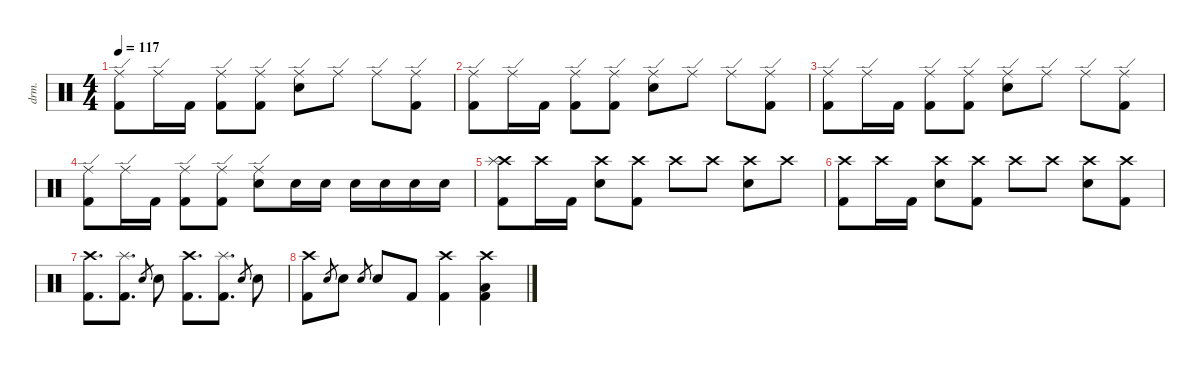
\defaultSystemsLayout 4
\hideDynamics
\bracketExtendMode nobrackets
\track ("Drums" "drm.") {instrument percussion}
\staff {score}
\articulation defaults
\ts (4 4)
\tempo 117
\clef neutral
\ks c
("Ride (edge)" "Kick (hit) 2").8{dy mf beam Down} "Ride (edge)".16{beam Down} "Kick (hit) 2".16{beam Down} ("Ride (edge)" "Kick (hit) 2").8{beam Down} ("Ride (edge)" "Kick (hit) 2").8{beam Down} ("Ride (edge)" "Snare (hit) 2").8{beam Down} "Ride (edge)".8{beam Down} "Ride (edge)".8{beam Down} ("Ride (edge)" "Kick (hit) 2").8{beam Down} |
("Ride (edge)" "Kick (hit) 2").8{beam Down} "Ride (edge)".16{beam Down} "Kick (hit) 2".16{beam Down} ("Ride (edge)" "Kick (hit) 2").8{beam Down} ("Ride (edge)" "Kick (hit) 2").8{beam Down} ("Ride (edge)" "Snare (hit) 2").8{beam Down} "Ride (edge)".8{beam Down} "Ride (edge)".8{beam Down} ("Ride (edge)" "Kick (hit) 2").8{beam Down} |
("Ride (edge)" "Kick (hit) 2").8{beam Down} "Ride (edge)".16{beam Down} "Kick (hit) 2".16{beam Down} ("Ride (edge)" "Kick (hit) 2").8{beam Down} ("Ride (edge)" "Kick (hit) 2").8{beam Down} ("Ride (edge)" "Snare (hit) 2").8{beam Down} "Ride (edge)".8{beam Down} "Ride (edge)".8{beam Down} ("Ride (edge)" "Kick (hit) 2").8{beam Down} |
("Ride (edge)" "Kick (hit) 2").8{beam Down} "Ride (edge)".16{beam Down} "Kick (hit) 2".16{beam Down} ("Ride (edge)" "Kick (hit) 2").8{beam Down} ("Ride (edge)" "Kick (hit) 2").8{beam Down} ("Ride (edge)" "Snare (hit) 2").8{beam Down} "Snare (hit) 2".16{beam Down} "Snare (hit) 2".16{beam Down} "Snare (hit) 2".16{beam Down} "Snare (hit) 2".16{beam Down} "Snare (hit) 2".16{beam Down} "Snare (hit) 2".16{beam Down} |
("Kick (hit) 2" "Crash high (hit)" "Splash (hit)").8{beam Down} "Crash high (hit)".16{beam Down} "Kick (hit) 2".16{beam Down} ("Snare (hit) 2" "Crash high (hit)").8{beam Down} ("Kick (hit) 2" "Crash high (hit)").8{beam Down} "Crash high (hit)".8{beam Down} "Crash high (hit)".8{beam Down} ("Snare (hit) 2" "Crash high (hit)").8{beam Down} "Crash high (hit)".8{beam Down} |
("Kick (hit) 2" "Crash high (hit)").8{beam Down} "Crash high (hit)".16{beam Down} "Kick (hit) 2".16{beam Down} ("Snare (hit) 2" "Crash high (hit)").8{beam Down} ("Kick (hit) 2" "Crash high (hit)").8{beam Down} "Crash high (hit)".8{beam Down} "Crash high (hit)".8{beam Down} ("Snare (hit) 2" "Crash high (hit)").8{beam Down} ("Crash high (hit)" "Kick (hit) 2").8{beam Down} |
("Kick (hit) 2" "Crash high (hit)").8{d beam Down} ("Splash (hit)" "Kick (hit) 2").8{d beam Down} "Snare (hit) 2".8{gr beam Up} "Snare (hit) 2".8{beam Down} ("Kick (hit) 2" "Crash high (hit)").8{d beam Down} ("Splash (hit)" "Kick (hit) 2").8{d beam Down} "Snare (hit) 2".8{gr beam Up} "Snare (hit) 2".8{beam Down} |
("Kick (hit) 2" "Crash high (hit)").8{beam Down} "Snare (hit) 2".8{gr beam Up} "Snare (hit) 2".8{beam Down} "Snare (hit) 2".8{gr beam Up} "Snare (hit) 2".8{beam Up} "Kick (hit) 2".8{beam Up} ("Kick (hit) 2" "Crash high (hit)").4{beam Down} ("Kick (hit) 2" "Crash high (hit)" "Low Tom (hit)").4{beam Down}
